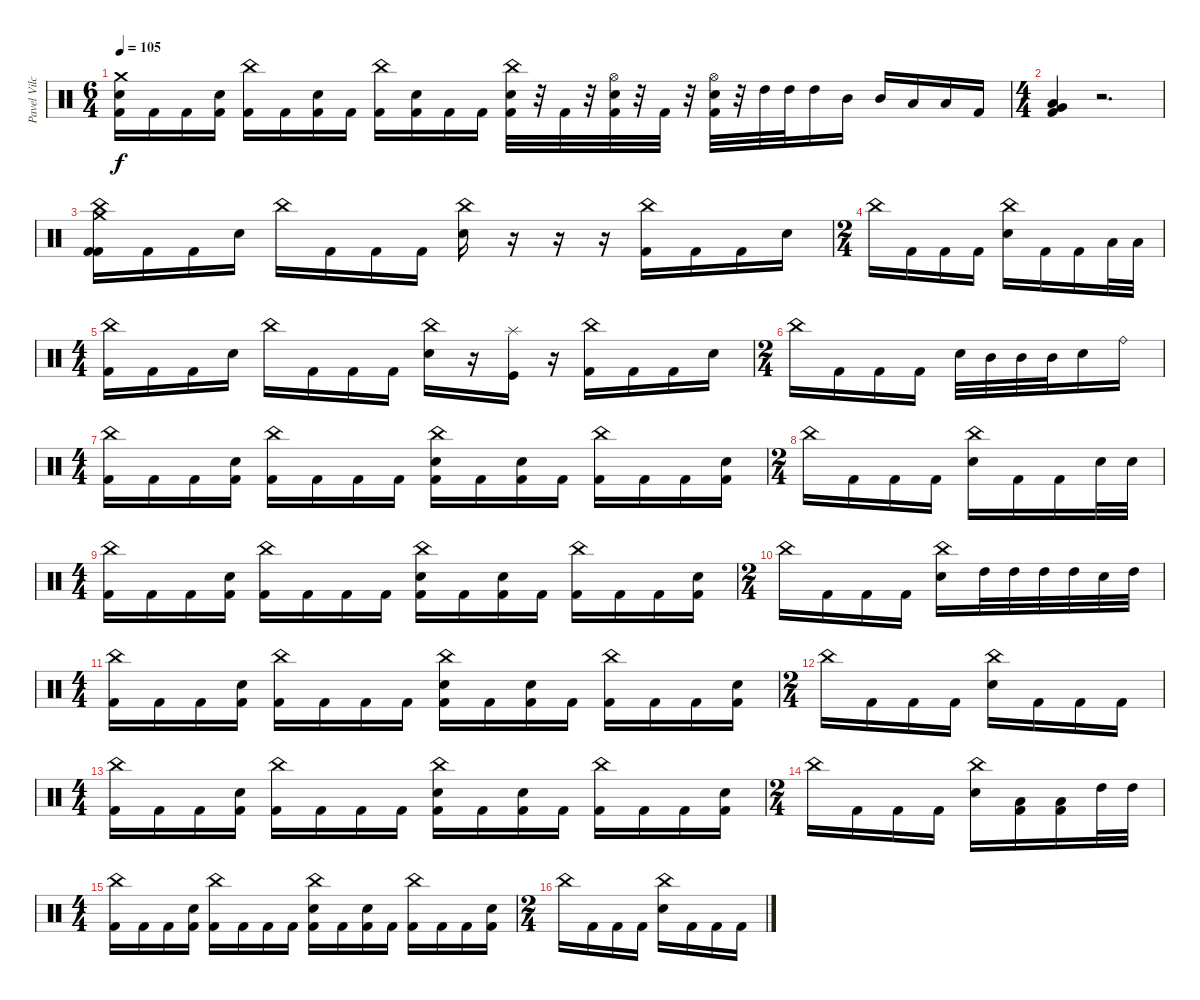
\track ("Pavel Vilchytski " "Pavel Vilc") {instrument percussion}
\staff {score}
\articulation defaults
\ts (6 4)
\tempo 105
\clef neutral
\ks c
("Crash medium (hit)" "Electric Snare (hit)" "Kick (hit) 2").16{dy f} "Kick (hit) 2".16 "Kick (hit) 2".16 ("Electric Snare (hit)" "Kick (hit) 2").16 ("China (hit)" "Kick (hit) 2").16 "Kick (hit) 2".16 ("Electric Snare (hit)" "Kick (hit) 2").16 "Kick (hit) 2".16 ("China (hit)" "Kick (hit) 2").16 ("Electric Snare (hit)" "Kick (hit) 2").16 "Kick (hit) 2".16 "Kick (hit) 2".16 ("China (hit)" "Electric Snare (hit)" "Kick (hit) 2").32 r.32 "Kick (hit) 2".32 r.32 ("Hi-Hat (open)" "Electric Snare (hit)" "Kick (hit) 2").32 r.32 "Kick (hit) 2".32 r.32 ("Hi-Hat (open)" "Electric Snare (hit)" "Kick (hit) 2").32 r.32 "High Tom (hit)".32 "High Tom (hit)".32 "High Tom (hit)".16 "Mid Tom (hit)".16 "Mid Tom (hit)".16 "Low Tom (hit)".16 "Low Tom (hit)".16 "Kick (hit) 2".16 |
\ts (4 4)
("Low Tom (hit)" "Very Low Tom (hit)" "Kick (hit) 2").4 r.2{d} |
("China (hit)" "Crash medium (hit)" "Kick (hit) 2" "Kick (hit) 2").16 "Kick (hit) 2".16 "Kick (hit) 2".16 "Electric Snare (hit)".16 "China (hit)".16 "Kick (hit) 2".16 "Kick (hit) 2".16 "Kick (hit) 2".16 ("China (hit)" "Electric Snare (hit)").16 r.16 r.16 r.16 ("China (hit)" "Kick (hit) 2").16 "Kick (hit) 2".16 "Kick (hit) 2".16 "Electric Snare (hit)".16 |
\ts (2 4)
"China (hit)".16 "Kick (hit) 2".16 "Kick (hit) 2".16 "Kick (hit) 2".16 ("China (hit)" "Electric Snare (hit)").16 "Kick (hit) 2".16 "Kick (hit) 2".16 "Low Tom (hit)".32 "Low Tom (hit)".32 |
\ts (4 4)
("China (hit)" "Kick (hit) 2").16 "Kick (hit) 2".16 "Kick (hit) 2".16 "Electric Snare (hit)".16 "China (hit)".16 "Kick (hit) 2".16 "Kick (hit) 2".16 "Kick (hit) 2".16 ("China (hit)" "Electric Snare (hit)").16 r.16 ("Splash (hit)" "Kick (hit)").16 r.16 ("China (hit)" "Kick (hit) 2").16 "Kick (hit) 2".16 "Kick (hit) 2".16 "Electric Snare (hit)".16 |
\ts (2 4)
"China (hit)".16 "Kick (hit) 2".16 "Kick (hit) 2".16 "Kick (hit) 2".16 "Electric Snare (hit)".32 "Mid Tom (hit)".32 "Mid Tom (hit)".32 "Mid Tom (hit)".32 "Electric Snare (hit)".16 "Ride (bell)".16 |
\ts (4 4)
("China (hit)" "Kick (hit) 2").16 "Kick (hit) 2".16 "Kick (hit) 2".16 ("Electric Snare (hit)" "Kick (hit) 2").16 ("China (hit)" "Kick (hit) 2").16 "Kick (hit) 2".16 "Kick (hit) 2".16 "Kick (hit) 2".16 ("China (hit)" "Electric Snare (hit)" "Kick (hit) 2").16 "Kick (hit) 2".16 ("Electric Snare (hit)" "Kick (hit) 2").16 "Kick (hit) 2".16 ("China (hit)" "Kick (hit) 2").16 "Kick (hit) 2".16 "Kick (hit) 2".16 ("Electric Snare (hit)" "Kick (hit) 2").16 |
\ts (2 4)
"China (hit)".16 "Kick (hit) 2".16 "Kick (hit) 2".16 "Kick (hit) 2".16 ("China (hit)" "Electric Snare (hit)").16 "Kick (hit) 2".16 "Kick (hit) 2".16 "Electric Snare (hit)".32 "Electric Snare (hit)".32 |
\ts (4 4)
("China (hit)" "Kick (hit) 2").16 "Kick (hit) 2".16 "Kick (hit) 2".16 ("Electric Snare (hit)" "Kick (hit) 2").16 ("China (hit)" "Kick (hit) 2").16 "Kick (hit) 2".16 "Kick (hit) 2".16 "Kick (hit) 2".16 ("China (hit)" "Electric Snare (hit)" "Kick (hit) 2").16 "Kick (hit) 2".16 ("Electric Snare (hit)" "Kick (hit) 2").16 "Kick (hit) 2".16 ("China (hit)" "Kick (hit) 2").16 "Kick (hit) 2".16 "Kick (hit) 2".16 ("Electric Snare (hit)" "Kick (hit) 2").16 |
\ts (2 4)
"China (hit)".16 "Kick (hit) 2".16 "Kick (hit) 2".16 "Kick (hit) 2".16 ("China (hit)" "Electric Snare (hit)").16 "High Tom (hit)".32 "High Tom (hit)".32 "High Tom (hit)".32 "High Tom (hit)".32 "Electric Snare (hit)".32 "High Tom (hit)".32 |
\ts (4 4)
("China (hit)" "Kick (hit) 2").16 "Kick (hit) 2".16 "Kick (hit) 2".16 ("Electric Snare (hit)" "Kick (hit) 2").16 ("China (hit)" "Kick (hit) 2").16 "Kick (hit) 2".16 "Kick (hit) 2".16 "Kick (hit) 2".16 ("China (hit)" "Electric Snare (hit)" "Kick (hit) 2").16 "Kick (hit) 2".16 ("Electric Snare (hit)" "Kick (hit) 2").16 "Kick (hit) 2".16 ("China (hit)" "Kick (hit) 2").16 "Kick (hit) 2".16 "Kick (hit) 2".16 ("Electric Snare (hit)" "Kick (hit) 2").16 |
\ts (2 4)
"China (hit)".16 "Kick (hit) 2".16 "Kick (hit) 2".16 "Kick (hit) 2".16 ("China (hit)" "Electric Snare (hit)").16 "Kick (hit) 2".16 "Kick (hit) 2".16 "Kick (hit) 2".16 |
\ts (4 4)
("China (hit)" "Kick (hit) 2").16 "Kick (hit) 2".16 "Kick (hit) 2".16 ("Electric Snare (hit)" "Kick (hit) 2").16 ("China (hit)" "Kick (hit) 2").16 "Kick (hit) 2".16 "Kick (hit) 2".16 "Kick (hit) 2".16 ("China (hit)" "Electric Snare (hit)" "Kick (hit) 2").16 "Kick (hit) 2".16 ("Electric Snare (hit)" "Kick (hit) 2").16 "Kick (hit) 2".16 ("China (hit)" "Kick (hit) 2").16 "Kick (hit) 2".16 "Kick (hit) 2".16 ("Electric Snare (hit)" "Kick (hit) 2").16 |
\ts (2 4)
"China (hit)".16 "Kick (hit) 2".16 "Kick (hit) 2".16 "Kick (hit) 2".16 ("China (hit)" "Electric Snare (hit)").16 ("Low Tom (hit)" "Kick (hit) 2").16 ("Low Tom (hit)" "Kick (hit) 2").16 "High Tom (hit)".32 "High Tom (hit)".32 |
\ts (4 4)
("China (hit)" "Kick (hit) 2").16 "Kick (hit) 2".16 "Kick (hit) 2".16 ("Electric Snare (hit)" "Kick (hit) 2").16 ("China (hit)" "Kick (hit) 2").16 "Kick (hit) 2".16 "Kick (hit) 2".16 "Kick (hit) 2".16 ("China (hit)" "Electric Snare (hit)" "Kick (hit) 2").16 "Kick (hit) 2".16 ("Electric Snare (hit)" "Kick (hit) 2").16 "Kick (hit) 2".16 ("China (hit)" "Kick (hit) 2").16 "Kick (hit) 2".16 "Kick (hit) 2".16 ("Electric Snare (hit)" "Kick (hit) 2").16 |
\ts (2 4)
"China (hit)".16 "Kick (hit) 2".16 "Kick (hit) 2".16 "Kick (hit) 2".16 ("China (hit)" "Electric Snare (hit)").16 "Kick (hit) 2".16 "Kick (hit) 2".16 "Kick (hit) 2".16
